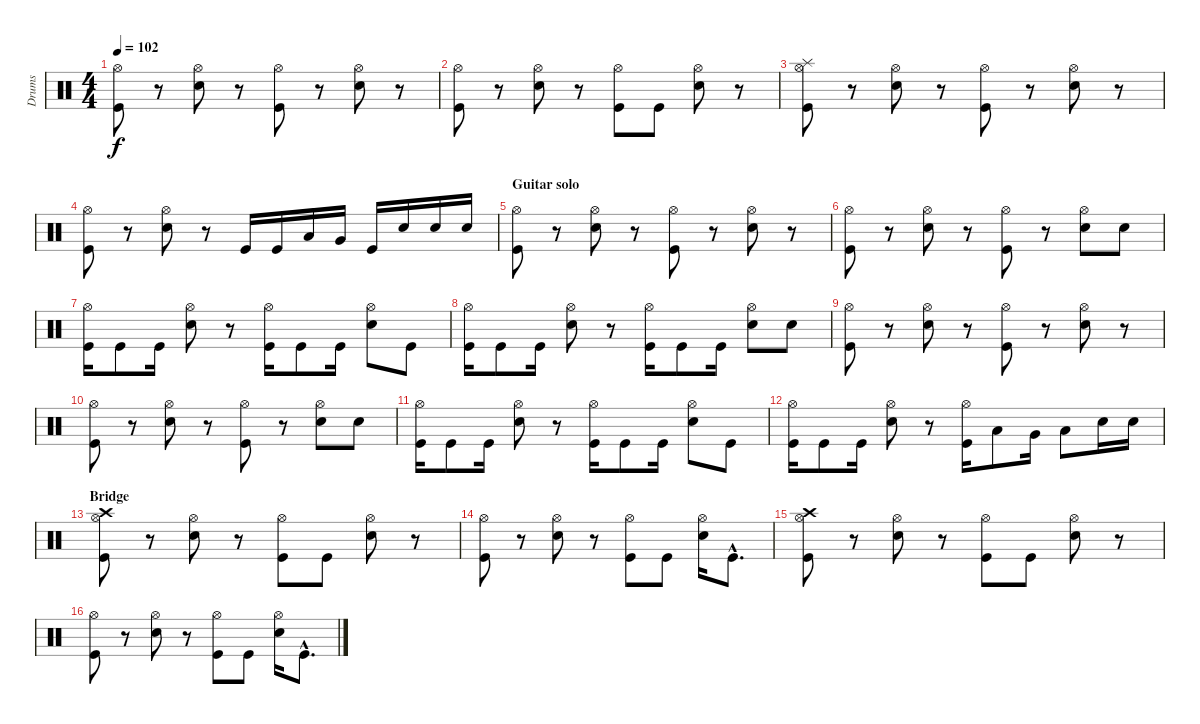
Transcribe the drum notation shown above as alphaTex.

\track ("Drums" "Drums") {instrument percussion}
\staff {score}
\articulation defaults
\ts (4 4)
\tempo 102
\clef neutral
\ks c
("Hi-Hat (open)" "Kick (hit)").8{dy f} r.8 ("Hi-Hat (open)" "Snare (hit) 2").8 r.8 ("Hi-Hat (open)" "Kick (hit)").8 r.8 ("Hi-Hat (open)" "Snare (hit) 2").8 r.8 |
("Hi-Hat (open)" "Kick (hit)").8 r.8 ("Hi-Hat (open)" "Snare (hit) 2").8 r.8 ("Hi-Hat (open)" "Kick (hit)").8 "Kick (hit)".8 ("Hi-Hat (open)" "Snare (hit) 2").8 r.8 |
("Hi-Hat (open)" "Splash (hit)" "Kick (hit)").8 r.8 ("Hi-Hat (open)" "Snare (hit) 2").8 r.8 ("Hi-Hat (open)" "Kick (hit)").8 r.8 ("Hi-Hat (open)" "Snare (hit) 2").8 r.8 |
("Hi-Hat (open)" "Kick (hit)").8 r.8 ("Hi-Hat (open)" "Snare (hit) 2").8 r.8 "Kick (hit)".16 "Kick (hit)".16 "Low Tom (hit)".16 "Very Low Tom (hit)".16 "Kick (hit)".16 "Snare (hit) 2".16 "Snare (hit) 2".16 "Snare (hit) 2".16 |
\section ("" "Guitar solo")
("Hi-Hat (open)" "Kick (hit)").8 r.8 ("Hi-Hat (open)" "Snare (hit) 2").8 r.8 ("Hi-Hat (open)" "Kick (hit)").8 r.8 ("Hi-Hat (open)" "Snare (hit) 2").8 r.8 |
("Hi-Hat (open)" "Kick (hit)").8 r.8 ("Hi-Hat (open)" "Snare (hit) 2").8 r.8 ("Hi-Hat (open)" "Kick (hit)").8 r.8 ("Hi-Hat (open)" "Snare (hit) 2").8 "Snare (hit) 2".8 |
("Hi-Hat (open)" "Kick (hit)").16 "Kick (hit)".8 "Kick (hit)".16 ("Hi-Hat (open)" "Snare (hit) 2").8 r.8 ("Hi-Hat (open)" "Kick (hit)").16 "Kick (hit)".8 "Kick (hit)".16 ("Hi-Hat (open)" "Snare (hit) 2").8 "Kick (hit)".8 |
("Hi-Hat (open)" "Kick (hit)").16 "Kick (hit)".8 "Kick (hit)".16 ("Hi-Hat (open)" "Snare (hit) 2").8 r.8 ("Hi-Hat (open)" "Kick (hit)").16 "Kick (hit)".8 "Kick (hit)".16 ("Hi-Hat (open)" "Snare (hit) 2").8 "Snare (hit) 2".8 |
("Hi-Hat (open)" "Kick (hit)").8 r.8 ("Hi-Hat (open)" "Snare (hit) 2").8 r.8 ("Hi-Hat (open)" "Kick (hit)").8 r.8 ("Hi-Hat (open)" "Snare (hit) 2").8 r.8 |
("Hi-Hat (open)" "Kick (hit)").8 r.8 ("Hi-Hat (open)" "Snare (hit) 2").8 r.8 ("Hi-Hat (open)" "Kick (hit)").8 r.8 ("Hi-Hat (open)" "Snare (hit) 2").8 "Snare (hit) 2".8 |
("Hi-Hat (open)" "Kick (hit)").16 "Kick (hit)".8 "Kick (hit)".16 ("Hi-Hat (open)" "Snare (hit) 2").8 r.8 ("Hi-Hat (open)" "Kick (hit)").16 "Kick (hit)".8 "Kick (hit)".16 ("Hi-Hat (open)" "Snare (hit) 2").8 "Kick (hit)".8 |
("Hi-Hat (open)" "Kick (hit)").16 "Kick (hit)".8 "Kick (hit)".16 ("Hi-Hat (open)" "Snare (hit) 2").8 r.8 ("Hi-Hat (open)" "Kick (hit)").16 "Low Tom (hit)".8 "Very Low Tom (hit)".16 "Low Floor Tom (hit)".8 "Snare (hit) 2".16 "Snare (hit) 2".16 |
\section ("" "Bridge")
("Hi-Hat (open)" "Crash high (hit)" "Kick (hit)").8 r.8 ("Hi-Hat (open)" "Snare (hit) 2").8 r.8 ("Hi-Hat (open)" "Kick (hit)").8 "Kick (hit)".8 ("Hi-Hat (open)" "Snare (hit) 2").8 r.8 |
("Hi-Hat (open)" "Kick (hit)").8 r.8 ("Hi-Hat (open)" "Snare (hit) 2").8 r.8 ("Hi-Hat (open)" "Kick (hit)").8 "Kick (hit)".8 ("Hi-Hat (open)" "Snare (hit) 2").16 "Kick (hit)"{hac}.8{d} |
("Hi-Hat (open)" "Crash high (hit)" "Kick (hit)").8 r.8 ("Hi-Hat (open)" "Snare (hit) 2").8 r.8 ("Hi-Hat (open)" "Kick (hit)").8 "Kick (hit)".8 ("Hi-Hat (open)" "Snare (hit) 2").8 r.8 |
("Hi-Hat (open)" "Kick (hit)").8 r.8 ("Hi-Hat (open)" "Snare (hit) 2").8 r.8 ("Hi-Hat (open)" "Kick (hit)").8 "Kick (hit)".8 ("Hi-Hat (open)" "Snare (hit) 2").16 "Kick (hit)"{hac}.8{d}
